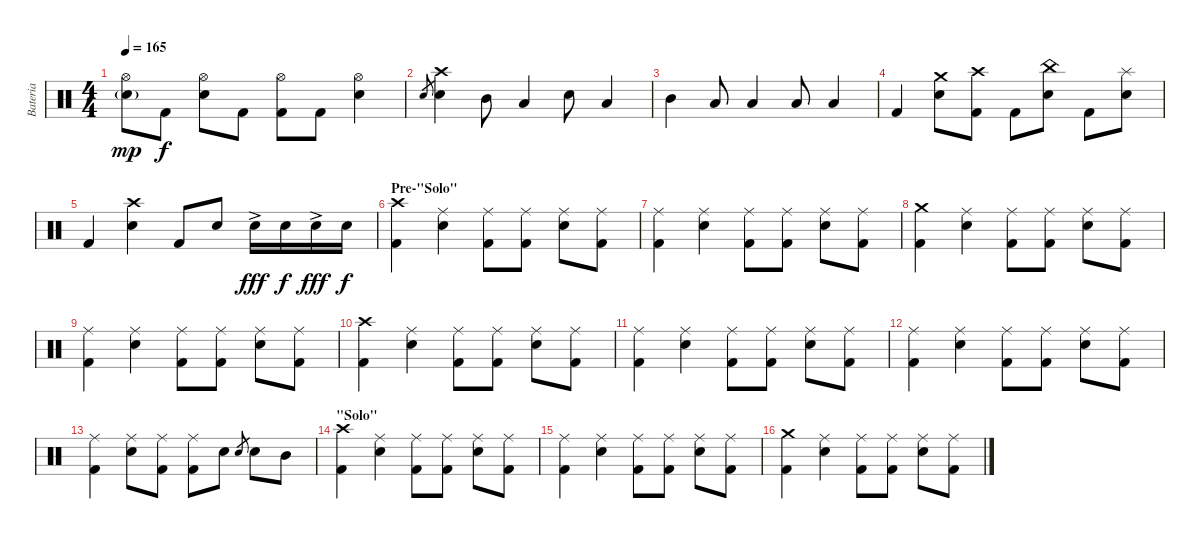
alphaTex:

\track ("Bateria" "Bateria") {instrument percussion}
\staff {score}
\articulation defaults
\ts (4 4)
\tempo 165
\clef neutral
\ks c
("Hi-Hat (open)" "Electric Snare (hit)"{g}).8{dy mp} "Kick (hit) 2".8{dy f} ("Hi-Hat (open)" "Electric Snare (hit)").8 "Kick (hit) 2".8 ("Hi-Hat (open)" "Kick (hit) 2").8 "Kick (hit) 2".8 ("Hi-Hat (open)" "Electric Snare (hit)").4 |
"Electric Snare (hit)".8{gr} ("Crash high (hit)" "Electric Snare (hit)").4 "Mid Tom (hit)".8 "Low Tom (hit)".4 "Electric Snare (hit)".8 "Low Tom (hit)".4 |
"Mid Tom (hit)".4 "Low Tom (hit)".8 "Low Floor Tom (hit)".4 "Low Tom (hit)".8 "Low Tom (hit)".4 |
"Kick (hit) 2".4 ("Crash medium (hit)" "Electric Snare (hit)").8 ("Crash high (hit)" "Kick (hit) 2").8 "Kick (hit) 2".8 ("China (hit)" "Electric Snare (hit)").8 "Kick (hit) 2".8 ("Splash (hit)" "Electric Snare (hit)").8 |
"Kick (hit) 2".4 ("Crash high (hit)" "Electric Snare (hit)").4 "Kick (hit) 2".8 "Electric Snare (hit)".8 "Electric Snare (hit)"{ac}.16{dy fff} "Electric Snare (hit)".16{dy f} "Electric Snare (hit)"{ac}.16{dy fff} "Electric Snare (hit)".16{dy f} |
\section ("" "Pre-\"Solo\"")
("Crash high (hit)" "Kick (hit) 2").4 ("Ride (middle)" "Electric Snare (hit)").4 ("Ride (middle)" "Kick (hit) 2").8 ("Ride (middle)" "Kick (hit) 2").8 ("Ride (middle)" "Electric Snare (hit)").8 ("Ride (middle)" "Kick (hit) 2").8 |
("Ride (middle)" "Kick (hit) 2").4 ("Ride (middle)" "Electric Snare (hit)").4 ("Ride (middle)" "Kick (hit) 2").8 ("Ride (middle)" "Kick (hit) 2").8 ("Ride (middle)" "Electric Snare (hit)").8 ("Ride (middle)" "Kick (hit) 2").8 |
("Crash medium (hit)" "Kick (hit) 2").4 ("Ride (middle)" "Electric Snare (hit)").4 ("Ride (middle)" "Kick (hit) 2").8 ("Ride (middle)" "Kick (hit) 2").8 ("Ride (middle)" "Electric Snare (hit)").8 ("Ride (middle)" "Kick (hit) 2").8 |
("Ride (middle)" "Kick (hit) 2").4 ("Ride (middle)" "Electric Snare (hit)").4 ("Ride (middle)" "Kick (hit) 2").8 ("Ride (middle)" "Kick (hit) 2").8 ("Ride (middle)" "Electric Snare (hit)").8 ("Ride (middle)" "Kick (hit) 2").8 |
("Crash high (hit)" "Kick (hit) 2").4 ("Ride (middle)" "Electric Snare (hit)").4 ("Ride (middle)" "Kick (hit) 2").8 ("Ride (middle)" "Kick (hit) 2").8 ("Ride (middle)" "Electric Snare (hit)").8 ("Ride (middle)" "Kick (hit) 2").8 |
("Ride (middle)" "Kick (hit) 2").4 ("Ride (middle)" "Electric Snare (hit)").4 ("Ride (middle)" "Kick (hit) 2").8 ("Ride (middle)" "Kick (hit) 2").8 ("Ride (middle)" "Electric Snare (hit)").8 ("Ride (middle)" "Kick (hit) 2").8 |
("Ride (middle)" "Kick (hit) 2").4 ("Ride (middle)" "Electric Snare (hit)").4 ("Ride (middle)" "Kick (hit) 2").8 ("Ride (middle)" "Kick (hit) 2").8 ("Ride (middle)" "Electric Snare (hit)").8 ("Ride (middle)" "Kick (hit) 2").8 |
("Ride (middle)" "Kick (hit) 2").4 ("Ride (middle)" "Electric Snare (hit)").8 ("Ride (middle)" "Kick (hit) 2").8 ("Ride (middle)" "Kick (hit) 2").8 "Electric Snare (hit)".8 "Electric Snare (hit)".8{gr} "Electric Snare (hit)".8 "Mid Tom (hit)".8 |
\section ("" "\"Solo\"")
("Crash high (hit)" "Kick (hit) 2").4 ("Ride (middle)" "Electric Snare (hit)").4 ("Ride (middle)" "Kick (hit) 2").8 ("Ride (middle)" "Kick (hit) 2").8 ("Ride (middle)" "Electric Snare (hit)").8 ("Ride (middle)" "Kick (hit) 2").8 |
("Ride (middle)" "Kick (hit) 2").4 ("Ride (middle)" "Electric Snare (hit)").4 ("Ride (middle)" "Kick (hit) 2").8 ("Ride (middle)" "Kick (hit) 2").8 ("Ride (middle)" "Electric Snare (hit)").8 ("Ride (middle)" "Kick (hit) 2").8 |
("Crash medium (hit)" "Kick (hit) 2").4 ("Ride (middle)" "Electric Snare (hit)").4 ("Ride (middle)" "Kick (hit) 2").8 ("Ride (middle)" "Kick (hit) 2").8 ("Ride (middle)" "Electric Snare (hit)").8 ("Ride (middle)" "Kick (hit) 2").8
